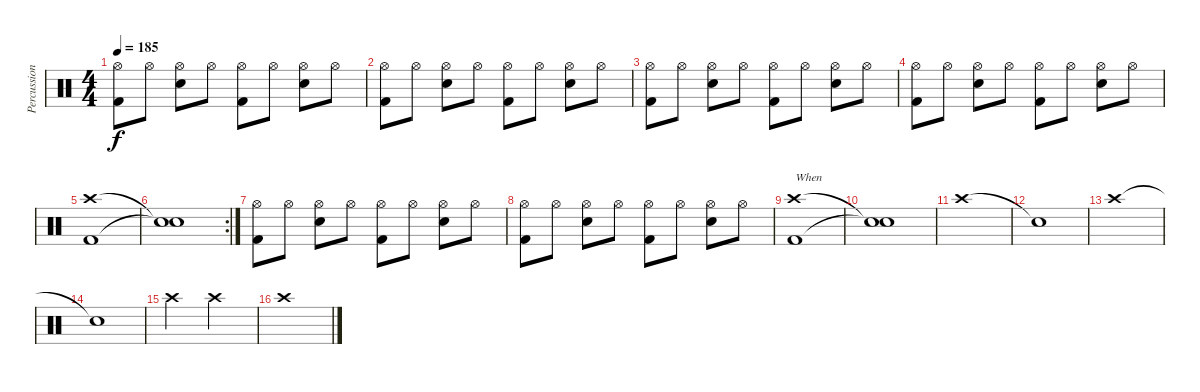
\track ("Percussion" "Percussion") {instrument percussion}
\staff {score}
\articulation defaults
\ts (4 4)
\tempo 185
\clef neutral
\ks c
("Hi-Hat (open)" "Kick (hit) 2").8{dy f} "Hi-Hat (open)".8 ("Hi-Hat (open)" "Snare (hit) 2").8 "Hi-Hat (open)".8 ("Hi-Hat (open)" "Kick (hit) 2").8 "Hi-Hat (open)".8 ("Hi-Hat (open)" "Snare (hit) 2").8 "Hi-Hat (open)".8 |
("Hi-Hat (open)" "Kick (hit) 2").8 "Hi-Hat (open)".8 ("Hi-Hat (open)" "Snare (hit) 2").8 "Hi-Hat (open)".8 ("Hi-Hat (open)" "Kick (hit) 2").8 "Hi-Hat (open)".8 ("Hi-Hat (open)" "Snare (hit) 2").8 "Hi-Hat (open)".8 |
("Hi-Hat (open)" "Kick (hit) 2").8 "Hi-Hat (open)".8 ("Hi-Hat (open)" "Snare (hit) 2").8 "Hi-Hat (open)".8 ("Hi-Hat (open)" "Kick (hit) 2").8 "Hi-Hat (open)".8 ("Hi-Hat (open)" "Snare (hit) 2").8 "Hi-Hat (open)".8 |
("Hi-Hat (open)" "Kick (hit) 2").8 "Hi-Hat (open)".8 ("Hi-Hat (open)" "Snare (hit) 2").8 "Hi-Hat (open)".8 ("Hi-Hat (open)" "Kick (hit) 2").8 "Hi-Hat (open)".8 ("Hi-Hat (open)" "Snare (hit) 2").8 "Hi-Hat (open)".8 |
("Crash high (hit)" "Kick (hit) 2").1 |
\rc 2
("Snare (hit)"{t} "Snare (hit)"{t}).1 |
("Hi-Hat (open)" "Kick (hit) 2").8 "Hi-Hat (open)".8 ("Hi-Hat (open)" "Snare (hit) 2").8 "Hi-Hat (open)".8 ("Hi-Hat (open)" "Kick (hit) 2").8 "Hi-Hat (open)".8 ("Hi-Hat (open)" "Snare (hit) 2").8 "Hi-Hat (open)".8 |
("Hi-Hat (open)" "Kick (hit) 2").8 "Hi-Hat (open)".8 ("Hi-Hat (open)" "Snare (hit) 2").8 "Hi-Hat (open)".8 ("Hi-Hat (open)" "Kick (hit) 2").8 "Hi-Hat (open)".8 ("Hi-Hat (open)" "Snare (hit) 2").8 "Hi-Hat (open)".8 |
("Crash high (hit)" "Kick (hit) 2").1{txt "When"} |
("Snare (hit)"{t} "Snare (hit)"{t}).1 |
"Crash high (hit)".1 |
"Snare (hit)"{t}.1 |
"Crash high (hit)".1 |
"Snare (hit)"{t}.1 |
"Crash high (hit)".2 "Crash high (hit)".2 |
"Crash high (hit)".1
